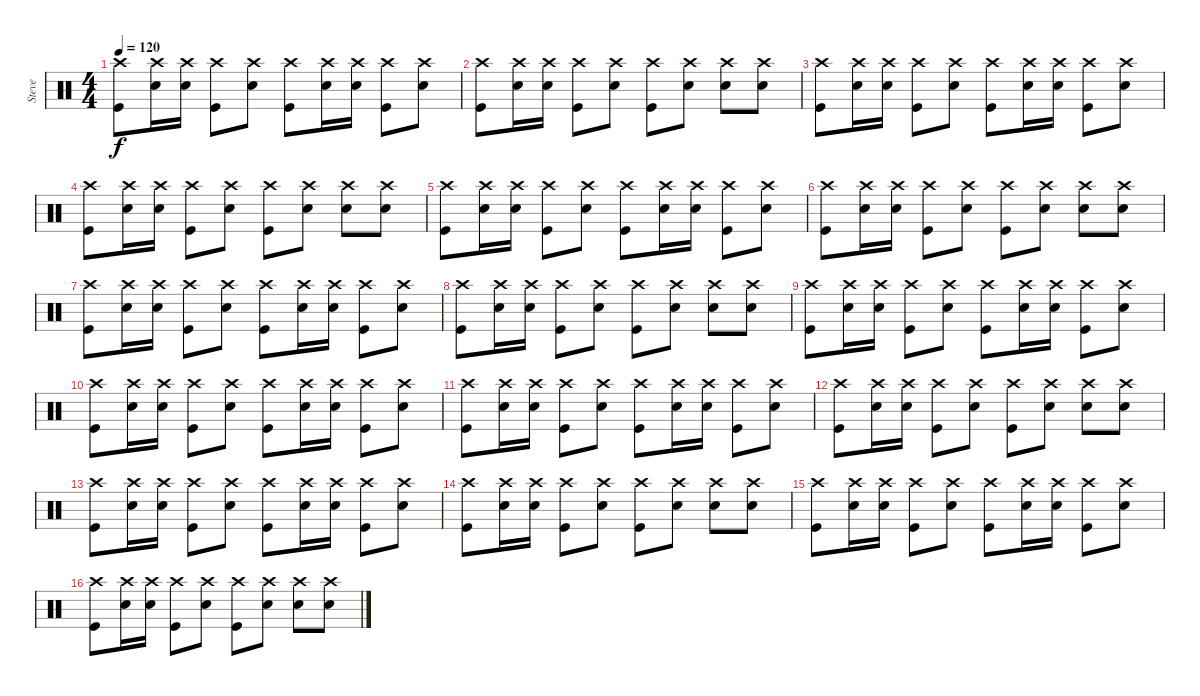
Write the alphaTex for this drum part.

\track ("Steve" "Steve") {instrument percussion}
\staff {score}
\articulation defaults
\ts (4 4)
\tempo 120
\clef neutral
\ks c
("Crash high (hit)" "Kick (hit)").8{dy f} ("Crash high (hit)" "Snare (hit) 2").16 ("Crash high (hit)" "Snare (hit) 2").16 ("Crash high (hit)" "Kick (hit)").8 ("Crash high (hit)" "Snare (hit) 2").8 ("Crash high (hit)" "Kick (hit)").8 ("Crash high (hit)" "Snare (hit) 2").16 ("Crash high (hit)" "Snare (hit) 2").16 ("Crash high (hit)" "Kick (hit)").8 ("Crash high (hit)" "Snare (hit) 2").8 |
("Crash high (hit)" "Kick (hit)").8 ("Crash high (hit)" "Snare (hit) 2").16 ("Crash high (hit)" "Snare (hit) 2").16 ("Crash high (hit)" "Kick (hit)").8 ("Crash high (hit)" "Snare (hit) 2").8 ("Crash high (hit)" "Kick (hit)").8 ("Crash high (hit)" "Snare (hit) 2").8 ("Crash high (hit)" "Snare (hit) 2").8 ("Crash high (hit)" "Snare (hit) 2").8 |
("Crash high (hit)" "Kick (hit)").8 ("Crash high (hit)" "Snare (hit) 2").16 ("Crash high (hit)" "Snare (hit) 2").16 ("Crash high (hit)" "Kick (hit)").8 ("Crash high (hit)" "Snare (hit) 2").8 ("Crash high (hit)" "Kick (hit)").8 ("Crash high (hit)" "Snare (hit) 2").16 ("Crash high (hit)" "Snare (hit) 2").16 ("Crash high (hit)" "Kick (hit)").8 ("Crash high (hit)" "Snare (hit) 2").8 |
("Crash high (hit)" "Kick (hit)").8 ("Crash high (hit)" "Snare (hit) 2").16 ("Crash high (hit)" "Snare (hit) 2").16 ("Crash high (hit)" "Kick (hit)").8 ("Crash high (hit)" "Snare (hit) 2").8 ("Crash high (hit)" "Kick (hit)").8 ("Crash high (hit)" "Snare (hit) 2").8 ("Crash high (hit)" "Snare (hit) 2").8 ("Crash high (hit)" "Snare (hit) 2").8 |
("Crash high (hit)" "Kick (hit)").8 ("Crash high (hit)" "Snare (hit) 2").16 ("Crash high (hit)" "Snare (hit) 2").16 ("Crash high (hit)" "Kick (hit)").8 ("Crash high (hit)" "Snare (hit) 2").8 ("Crash high (hit)" "Kick (hit)").8 ("Crash high (hit)" "Snare (hit) 2").16 ("Crash high (hit)" "Snare (hit) 2").16 ("Crash high (hit)" "Kick (hit)").8 ("Crash high (hit)" "Snare (hit) 2").8 |
("Crash high (hit)" "Kick (hit)").8 ("Crash high (hit)" "Snare (hit) 2").16 ("Crash high (hit)" "Snare (hit) 2").16 ("Crash high (hit)" "Kick (hit)").8 ("Crash high (hit)" "Snare (hit) 2").8 ("Crash high (hit)" "Kick (hit)").8 ("Crash high (hit)" "Snare (hit) 2").8 ("Crash high (hit)" "Snare (hit) 2").8 ("Crash high (hit)" "Snare (hit) 2").8 |
("Crash high (hit)" "Kick (hit)").8 ("Crash high (hit)" "Snare (hit) 2").16 ("Crash high (hit)" "Snare (hit) 2").16 ("Crash high (hit)" "Kick (hit)").8 ("Crash high (hit)" "Snare (hit) 2").8 ("Crash high (hit)" "Kick (hit)").8 ("Crash high (hit)" "Snare (hit) 2").16 ("Crash high (hit)" "Snare (hit) 2").16 ("Crash high (hit)" "Kick (hit)").8 ("Crash high (hit)" "Snare (hit) 2").8 |
("Crash high (hit)" "Kick (hit)").8 ("Crash high (hit)" "Snare (hit) 2").16 ("Crash high (hit)" "Snare (hit) 2").16 ("Crash high (hit)" "Kick (hit)").8 ("Crash high (hit)" "Snare (hit) 2").8 ("Crash high (hit)" "Kick (hit)").8 ("Crash high (hit)" "Snare (hit) 2").8 ("Crash high (hit)" "Snare (hit) 2").8 ("Crash high (hit)" "Snare (hit) 2").8 |
("Crash high (hit)" "Kick (hit)").8 ("Crash high (hit)" "Snare (hit) 2").16 ("Crash high (hit)" "Snare (hit) 2").16 ("Crash high (hit)" "Kick (hit)").8 ("Crash high (hit)" "Snare (hit) 2").8 ("Crash high (hit)" "Kick (hit)").8 ("Crash high (hit)" "Snare (hit) 2").16 ("Crash high (hit)" "Snare (hit) 2").16 ("Crash high (hit)" "Kick (hit)").8 ("Crash high (hit)" "Snare (hit) 2").8 |
("Crash high (hit)" "Kick (hit)").8 ("Crash high (hit)" "Snare (hit) 2").16 ("Crash high (hit)" "Snare (hit) 2").16 ("Crash high (hit)" "Kick (hit)").8 ("Crash high (hit)" "Snare (hit) 2").8 ("Crash high (hit)" "Kick (hit)").8 ("Crash high (hit)" "Snare (hit) 2").16 ("Crash high (hit)" "Snare (hit) 2").16 ("Crash high (hit)" "Kick (hit)").8 ("Crash high (hit)" "Snare (hit) 2").8 |
("Crash high (hit)" "Kick (hit)").8 ("Crash high (hit)" "Snare (hit) 2").16 ("Crash high (hit)" "Snare (hit) 2").16 ("Crash high (hit)" "Kick (hit)").8 ("Crash high (hit)" "Snare (hit) 2").8 ("Crash high (hit)" "Kick (hit)").8 ("Crash high (hit)" "Snare (hit) 2").16 ("Crash high (hit)" "Snare (hit) 2").16 ("Crash high (hit)" "Kick (hit)").8 ("Crash high (hit)" "Snare (hit) 2").8 |
("Crash high (hit)" "Kick (hit)").8 ("Crash high (hit)" "Snare (hit) 2").16 ("Crash high (hit)" "Snare (hit) 2").16 ("Crash high (hit)" "Kick (hit)").8 ("Crash high (hit)" "Snare (hit) 2").8 ("Crash high (hit)" "Kick (hit)").8 ("Crash high (hit)" "Snare (hit) 2").8 ("Crash high (hit)" "Snare (hit) 2").8 ("Crash high (hit)" "Snare (hit) 2").8 |
("Crash high (hit)" "Kick (hit)").8 ("Crash high (hit)" "Snare (hit) 2").16 ("Crash high (hit)" "Snare (hit) 2").16 ("Crash high (hit)" "Kick (hit)").8 ("Crash high (hit)" "Snare (hit) 2").8 ("Crash high (hit)" "Kick (hit)").8 ("Crash high (hit)" "Snare (hit) 2").16 ("Crash high (hit)" "Snare (hit) 2").16 ("Crash high (hit)" "Kick (hit)").8 ("Crash high (hit)" "Snare (hit) 2").8 |
("Crash high (hit)" "Kick (hit)").8 ("Crash high (hit)" "Snare (hit) 2").16 ("Crash high (hit)" "Snare (hit) 2").16 ("Crash high (hit)" "Kick (hit)").8 ("Crash high (hit)" "Snare (hit) 2").8 ("Crash high (hit)" "Kick (hit)").8 ("Crash high (hit)" "Snare (hit) 2").8 ("Crash high (hit)" "Snare (hit) 2").8 ("Crash high (hit)" "Snare (hit) 2").8 |
("Crash high (hit)" "Kick (hit)").8 ("Crash high (hit)" "Snare (hit) 2").16 ("Crash high (hit)" "Snare (hit) 2").16 ("Crash high (hit)" "Kick (hit)").8 ("Crash high (hit)" "Snare (hit) 2").8 ("Crash high (hit)" "Kick (hit)").8 ("Crash high (hit)" "Snare (hit) 2").16 ("Crash high (hit)" "Snare (hit) 2").16 ("Crash high (hit)" "Kick (hit)").8 ("Crash high (hit)" "Snare (hit) 2").8 |
("Crash high (hit)" "Kick (hit)").8 ("Crash high (hit)" "Snare (hit) 2").16 ("Crash high (hit)" "Snare (hit) 2").16 ("Crash high (hit)" "Kick (hit)").8 ("Crash high (hit)" "Snare (hit) 2").8 ("Crash high (hit)" "Kick (hit)").8 ("Crash high (hit)" "Snare (hit) 2").8 ("Crash high (hit)" "Snare (hit) 2").8 ("Crash high (hit)" "Snare (hit) 2").8
